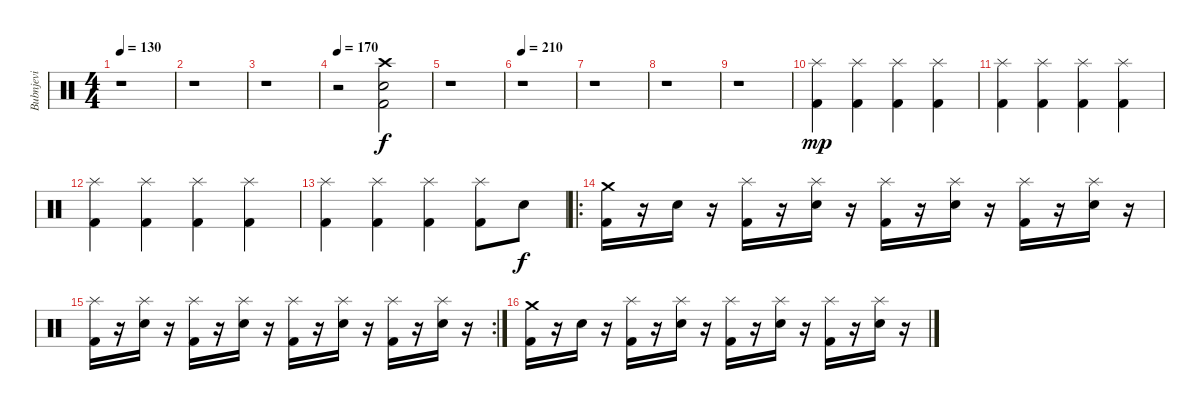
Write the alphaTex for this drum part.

\track ("Bubnjevi" "Bubnjevi") {instrument percussion}
\staff {score}
\articulation defaults
\ts (4 4)
\tempo 130
\clef neutral
\ks c
r.1{dy f} |
r.1 |
r.1 |
\tempo 170
r.2 ("Kick (hit) 2" "Snare (hit) 2" "Crash high (hit)").2 |
r.1 |
\tempo 210
r.1 |
r.1 |
r.1 |
r.1 |
("Splash (hit)" "Kick (hit) 2").4{dy mp} ("Splash (hit)" "Kick (hit) 2").4 ("Splash (hit)" "Kick (hit) 2").4 ("Splash (hit)" "Kick (hit) 2").4 |
("Splash (hit)" "Kick (hit) 2").4 ("Splash (hit)" "Kick (hit) 2").4 ("Splash (hit)" "Kick (hit) 2").4 ("Splash (hit)" "Kick (hit) 2").4 |
("Splash (hit)" "Kick (hit) 2").4 ("Splash (hit)" "Kick (hit) 2").4 ("Splash (hit)" "Kick (hit) 2").4 ("Splash (hit)" "Kick (hit) 2").4 |
("Splash (hit)" "Kick (hit) 2").4 ("Splash (hit)" "Kick (hit) 2").4 ("Splash (hit)" "Kick (hit) 2").4 ("Splash (hit)" "Kick (hit) 2").8 "Snare (hit) 2".8{dy f} |
\ro
("Kick (hit) 2" "Crash medium (hit)").16 r.16 "Snare (hit) 2".16 r.16 ("Splash (hit)" "Kick (hit) 2").16 r.16 ("Splash (hit)" "Snare (hit) 2").16 r.16 ("Splash (hit)" "Kick (hit) 2").16 r.16 ("Splash (hit)" "Snare (hit) 2").16 r.16 ("Splash (hit)" "Kick (hit) 2").16 r.16 ("Splash (hit)" "Snare (hit) 2").16 r.16 |
\rc 2
("Splash (hit)" "Kick (hit) 2").16 r.16 ("Splash (hit)" "Snare (hit) 2").16 r.16 ("Splash (hit)" "Kick (hit) 2").16 r.16 ("Splash (hit)" "Snare (hit) 2").16 r.16 ("Splash (hit)" "Kick (hit) 2").16 r.16 ("Splash (hit)" "Snare (hit) 2").16 r.16 ("Splash (hit)" "Kick (hit) 2").16 r.16 ("Splash (hit)" "Snare (hit) 2").16 r.16 |
("Kick (hit) 2" "Crash medium (hit)").16 r.16 "Snare (hit) 2".16 r.16 ("Splash (hit)" "Kick (hit) 2").16 r.16 ("Splash (hit)" "Snare (hit) 2").16 r.16 ("Splash (hit)" "Kick (hit) 2").16 r.16 ("Splash (hit)" "Snare (hit) 2").16 r.16 ("Splash (hit)" "Kick (hit) 2").16 r.16 ("Splash (hit)" "Snare (hit) 2").16 r.16
